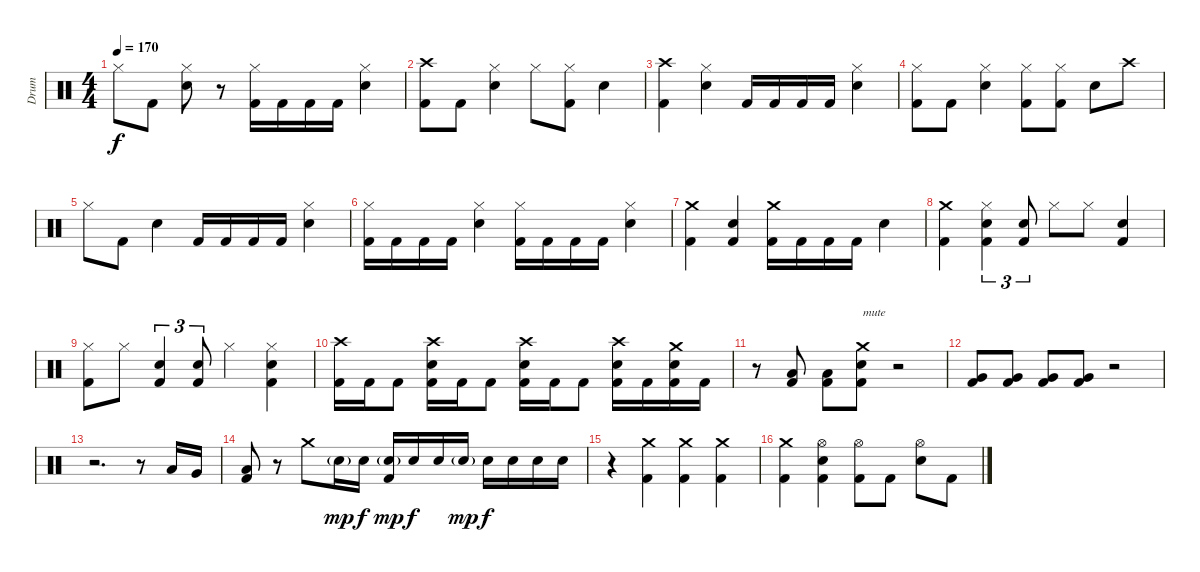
\track ("Drum" "Drum") {instrument percussion}
\staff {score}
\articulation defaults
\ts (4 4)
\tempo 170
\clef neutral
\ks c "Hi-Hat (closed)".8{dy f} "Kick (hit) 2".8
("Hi-Hat (closed)" "Electric Snare (hit)").8 r.8 ("Hi-Hat (closed)" "Kick (hit) 2").16 "Kick (hit) 2".16 "Kick (hit) 2".16 "Kick (hit) 2".16 ("Hi-Hat (closed)" "Electric Snare (hit)").4 |
("Crash high (hit)" "Kick (hit) 2").8 "Kick (hit) 2".8 ("Hi-Hat (closed)" "Electric Snare (hit)").4 "Hi-Hat (closed)".8 ("Hi-Hat (closed)" "Kick (hit) 2").8 "Electric Snare (hit)".4 |
("Crash high (hit)" "Kick (hit) 2").4 ("Hi-Hat (closed)" "Electric Snare (hit)").4 "Kick (hit) 2".16 "Kick (hit) 2".16 "Kick (hit) 2".16 "Kick (hit) 2".16 ("Hi-Hat (closed)" "Electric Snare (hit)").4 |
("Hi-Hat (closed)" "Kick (hit) 2").8 "Kick (hit) 2".8 ("Hi-Hat (closed)" "Electric Snare (hit)").4 ("Hi-Hat (closed)" "Kick (hit) 2").8 ("Hi-Hat (closed)" "Kick (hit) 2").8 "Electric Snare (hit)".8 "Crash high (hit)".8 |
"Hi-Hat (closed)".8 "Kick (hit) 2".8 "Electric Snare (hit)".4 "Kick (hit) 2".16 "Kick (hit) 2".16 "Kick (hit) 2".16 "Kick (hit) 2".16 ("Hi-Hat (closed)" "Electric Snare (hit)").4 |
("Hi-Hat (closed)" "Kick (hit) 2").16 "Kick (hit) 2".16 "Kick (hit) 2".16 "Kick (hit) 2".16 ("Hi-Hat (closed)" "Electric Snare (hit)").4 ("Hi-Hat (closed)" "Kick (hit) 2").16 "Kick (hit) 2".16 "Kick (hit) 2".16 "Kick (hit) 2".16 ("Hi-Hat (closed)" "Electric Snare (hit)").4 |
("Crash medium (hit)" "Kick (hit) 2").4 ("Electric Snare (hit)" "Kick (hit) 2").4 ("Crash medium (hit)" "Kick (hit) 2").16 "Kick (hit) 2".16 "Kick (hit) 2".16 "Kick (hit) 2".16 "Electric Snare (hit)".4 |
("Crash medium (hit)" "Kick (hit) 2").4 ("Hi-Hat (closed)" "Electric Snare (hit)" "Kick (hit) 2").4{tu (3 2)} ("Electric Snare (hit)" "Kick (hit) 2").8{tu (3 2)} "Hi-Hat (closed)".8 "Hi-Hat (closed)".8 ("Electric Snare (hit)" "Kick (hit) 2").4 |
("Hi-Hat (closed)" "Kick (hit) 2").8 "Hi-Hat (closed)".8 ("Electric Snare (hit)" "Kick (hit) 2").4{tu (3 2)} ("Electric Snare (hit)" "Kick (hit) 2").8{tu (3 2)} "Hi-Hat (closed)".4 ("Hi-Hat (closed)" "Electric Snare (hit)" "Kick (hit) 2").4 |
("Crash high (hit)" "Kick (hit) 2").16 "Kick (hit) 2".16 "Kick (hit) 2".8 ("Crash high (hit)" "Electric Snare (hit)" "Kick (hit) 2").16 "Kick (hit) 2".16 "Kick (hit) 2".8 ("Crash high (hit)" "Electric Snare (hit)" "Kick (hit) 2").16 "Kick (hit) 2".16 "Kick (hit) 2".8 ("Crash high (hit)" "Electric Snare (hit)" "Kick (hit) 2").16 "Kick (hit) 2".16 ("Crash medium (hit)" "Electric Snare (hit)" "Kick (hit) 2").16 "Kick (hit) 2".16 |
r.8 ("Low Tom (hit)" "Kick (hit) 2").8 ("Low Tom (hit)" "Kick (hit) 2").8 ("Crash medium (hit)" "Electric Snare (hit)" "Kick (hit) 2").8{txt "mute"} r.2 |
("Very Low Tom (hit)" "Kick (hit) 2").8 ("Very Low Tom (hit)" "Kick (hit) 2").8 ("Very Low Tom (hit)" "Kick (hit) 2").8 ("Very Low Tom (hit)" "Kick (hit) 2").8 r.2 |
r.2{d} r.8 "Low Tom (hit)".16 "Very Low Tom (hit)".16 |
("Low Floor Tom (hit)" "Kick (hit) 2").8 r.8 "Crash medium (hit)".8 "Electric Snare (hit)"{g}.16{dy mp} "Electric Snare (hit)".16{dy f} ("Electric Snare (hit)"{g} "Kick (hit) 2").16{dy mp} "Electric Snare (hit)".16{dy f} "Electric Snare (hit)".16 "Electric Snare (hit)"{g}.16{dy mp} "Electric Snare (hit)".16{dy f} "Electric Snare (hit)".16 "Electric Snare (hit)".16 "Electric Snare (hit)".16 |
r.4 ("Crash medium (hit)" "Kick (hit) 2").4 ("Crash medium (hit)" "Kick (hit) 2").4 ("Crash medium (hit)" "Kick (hit) 2").4 |
("Crash medium (hit)" "Kick (hit) 2").4 ("Hi-Hat (open)" "Electric Snare (hit)" "Kick (hit) 2").4 ("Hi-Hat (open)" "Kick (hit) 2").8 "Kick (hit) 2".8 ("Hi-Hat (open)" "Electric Snare (hit)").8 "Kick (hit) 2".8
